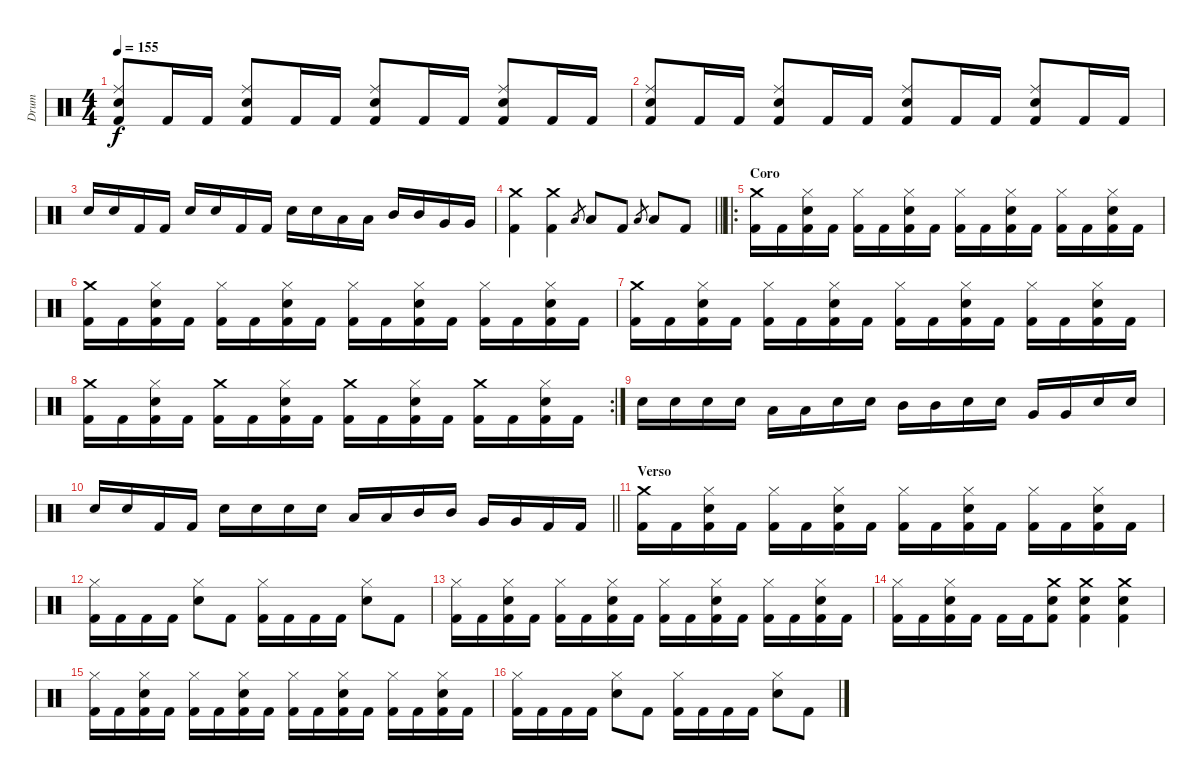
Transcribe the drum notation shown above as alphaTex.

\track ("Drum" "Drum") {instrument percussion}
\staff {score}
\articulation defaults
\ts (4 4)
\tempo 155
\clef neutral
\ks c
("Kick (hit) 2" "Ride (middle)" "Electric Snare (hit)").8{dy f} "Kick (hit) 2".16 "Kick (hit) 2".16 ("Kick (hit) 2" "Ride (middle)" "Electric Snare (hit)").8 "Kick (hit) 2".16 "Kick (hit) 2".16 ("Kick (hit) 2" "Ride (middle)" "Electric Snare (hit)").8 "Kick (hit) 2".16 "Kick (hit) 2".16 ("Kick (hit) 2" "Ride (middle)" "Electric Snare (hit)").8 "Kick (hit) 2".16 "Kick (hit) 2".16 |
("Kick (hit) 2" "Ride (middle)" "Electric Snare (hit)").8 "Kick (hit) 2".16 "Kick (hit) 2".16 ("Kick (hit) 2" "Ride (middle)" "Electric Snare (hit)").8 "Kick (hit) 2".16 "Kick (hit) 2".16 ("Kick (hit) 2" "Ride (middle)" "Electric Snare (hit)").8 "Kick (hit) 2".16 "Kick (hit) 2".16 ("Kick (hit) 2" "Ride (middle)" "Electric Snare (hit)").8 "Kick (hit) 2".16 "Kick (hit) 2".16 |
"Electric Snare (hit)".16 "Electric Snare (hit)".16 "Kick (hit) 2".16 "Kick (hit) 2".16 "Electric Snare (hit)".16 "Electric Snare (hit)".16 "Kick (hit) 2".16 "Kick (hit) 2".16 "Electric Snare (hit)".16 "Electric Snare (hit)".16 "Low Tom (hit)".16 "Low Tom (hit)".16 "Mid Tom (hit)".16 "Mid Tom (hit)".16 "Very Low Tom (hit)".16 "Very Low Tom (hit)".16 |
\barLineRight lightlight
("Kick (hit) 2" "Crash medium (hit)").4 ("Kick (hit) 2" "Crash medium (hit)").4 "Low Tom (hit)".8{gr} "Low Tom (hit)".8 "Kick (hit) 2".8 "Low Tom (hit)".8{gr} "Low Tom (hit)".8 "Kick (hit) 2".8 |
\ro
\section ("" "Coro")
("Kick (hit) 2" "Crash medium (hit)").16 "Kick (hit) 2".16 ("Kick (hit) 2" "Hi-Hat (closed)" "Electric Snare (hit)").16 "Kick (hit) 2".16 ("Kick (hit) 2" "Hi-Hat (closed)").16 "Kick (hit) 2".16 ("Kick (hit) 2" "Hi-Hat (closed)" "Electric Snare (hit)").16 "Kick (hit) 2".16 ("Kick (hit) 2" "Hi-Hat (closed)").16 "Kick (hit) 2".16 ("Kick (hit) 2" "Hi-Hat (closed)" "Electric Snare (hit)").16 "Kick (hit) 2".16 ("Kick (hit) 2" "Hi-Hat (closed)").16 "Kick (hit) 2".16 ("Kick (hit) 2" "Hi-Hat (closed)" "Electric Snare (hit)").16 "Kick (hit) 2".16 |
("Kick (hit) 2" "Crash medium (hit)").16 "Kick (hit) 2".16 ("Kick (hit) 2" "Hi-Hat (closed)" "Electric Snare (hit)").16 "Kick (hit) 2".16 ("Kick (hit) 2" "Hi-Hat (closed)").16 "Kick (hit) 2".16 ("Kick (hit) 2" "Hi-Hat (closed)" "Electric Snare (hit)").16 "Kick (hit) 2".16 ("Kick (hit) 2" "Hi-Hat (closed)").16 "Kick (hit) 2".16 ("Kick (hit) 2" "Hi-Hat (closed)" "Electric Snare (hit)").16 "Kick (hit) 2".16 ("Kick (hit) 2" "Hi-Hat (closed)").16 "Kick (hit) 2".16 ("Kick (hit) 2" "Hi-Hat (closed)" "Electric Snare (hit)").16 "Kick (hit) 2".16 |
("Kick (hit) 2" "Crash medium (hit)").16 "Kick (hit) 2".16 ("Kick (hit) 2" "Hi-Hat (closed)" "Electric Snare (hit)").16 "Kick (hit) 2".16 ("Kick (hit) 2" "Hi-Hat (closed)").16 "Kick (hit) 2".16 ("Kick (hit) 2" "Hi-Hat (closed)" "Electric Snare (hit)").16 "Kick (hit) 2".16 ("Kick (hit) 2" "Hi-Hat (closed)").16 "Kick (hit) 2".16 ("Kick (hit) 2" "Hi-Hat (closed)" "Electric Snare (hit)").16 "Kick (hit) 2".16 ("Kick (hit) 2" "Hi-Hat (closed)").16 "Kick (hit) 2".16 ("Kick (hit) 2" "Hi-Hat (closed)" "Electric Snare (hit)").16 "Kick (hit) 2".16 |
\rc 2
("Kick (hit) 2" "Crash medium (hit)").16 "Kick (hit) 2".16 ("Kick (hit) 2" "Hi-Hat (closed)" "Electric Snare (hit)").16 "Kick (hit) 2".16 ("Kick (hit) 2" "Crash medium (hit)").16 "Kick (hit) 2".16 ("Kick (hit) 2" "Hi-Hat (closed)" "Electric Snare (hit)").16 "Kick (hit) 2".16 ("Kick (hit) 2" "Crash medium (hit)").16 "Kick (hit) 2".16 ("Kick (hit) 2" "Hi-Hat (closed)" "Electric Snare (hit)").16 "Kick (hit) 2".16 ("Kick (hit) 2" "Crash medium (hit)").16 "Kick (hit) 2".16 ("Kick (hit) 2" "Hi-Hat (closed)" "Electric Snare (hit)").16 "Kick (hit) 2".16 |
"Electric Snare (hit)".16 "Electric Snare (hit)".16 "Electric Snare (hit)".16 "Electric Snare (hit)".16 "Low Tom (hit)".16 "Low Tom (hit)".16 "Electric Snare (hit)".16 "Electric Snare (hit)".16 "Mid Tom (hit)".16 "Mid Tom (hit)".16 "Electric Snare (hit)".16 "Electric Snare (hit)".16 "Very Low Tom (hit)".16 "Very Low Tom (hit)".16 "Electric Snare (hit)".16 "Electric Snare (hit)".16 |
\barLineRight lightlight "Electric Snare (hit)".16 "Electric Snare (hit)".16 "Kick (hit) 2".16 "Kick (hit) 2".16 "Electric Snare (hit)".16 "Electric Snare (hit)".16 "Electric Snare (hit)".16 "Electric Snare (hit)".16 "Low Tom (hit)".16 "Low Tom (hit)".16 "Mid Tom (hit)".16 "Mid Tom (hit)".16 "Very Low Tom (hit)".16 "Very Low Tom (hit)".16 "Kick (hit) 2".16 "Kick (hit) 2".16
|
\section ("" "Verso")
("Kick (hit) 2" "Crash medium (hit)").16 "Kick (hit) 2".16 ("Kick (hit) 2" "Hi-Hat (closed)" "Electric Snare (hit)").16 "Kick (hit) 2".16 ("Kick (hit) 2" "Hi-Hat (closed)").16 "Kick (hit) 2".16 ("Kick (hit) 2" "Hi-Hat (closed)" "Electric Snare (hit)").16 "Kick (hit) 2".16 ("Kick (hit) 2" "Hi-Hat (closed)").16 "Kick (hit) 2".16 ("Kick (hit) 2" "Hi-Hat (closed)" "Electric Snare (hit)").16 "Kick (hit) 2".16 ("Kick (hit) 2" "Hi-Hat (closed)").16 "Kick (hit) 2".16 ("Kick (hit) 2" "Hi-Hat (closed)" "Electric Snare (hit)").16 "Kick (hit) 2".16 |
("Kick (hit) 2" "Hi-Hat (closed)").16 "Kick (hit) 2".16 "Kick (hit) 2".16 "Kick (hit) 2".16 ("Hi-Hat (closed)" "Electric Snare (hit)").8 "Kick (hit) 2".8 ("Kick (hit) 2" "Hi-Hat (closed)").16 "Kick (hit) 2".16 "Kick (hit) 2".16 "Kick (hit) 2".16 ("Hi-Hat (closed)" "Electric Snare (hit)").8 "Kick (hit) 2".8 |
("Kick (hit) 2" "Hi-Hat (closed)").16 "Kick (hit) 2".16 ("Kick (hit) 2" "Hi-Hat (closed)" "Electric Snare (hit)").16 "Kick (hit) 2".16 ("Kick (hit) 2" "Hi-Hat (closed)").16 "Kick (hit) 2".16 ("Kick (hit) 2" "Hi-Hat (closed)" "Electric Snare (hit)").16 "Kick (hit) 2".16 ("Kick (hit) 2" "Hi-Hat (closed)").16 "Kick (hit) 2".16 ("Kick (hit) 2" "Hi-Hat (closed)" "Electric Snare (hit)").16 "Kick (hit) 2".16 ("Kick (hit) 2" "Hi-Hat (closed)").16 "Kick (hit) 2".16 ("Kick (hit) 2" "Hi-Hat (closed)" "Electric Snare (hit)").16 "Kick (hit) 2".16 |
("Kick (hit) 2" "Hi-Hat (closed)").16 "Kick (hit) 2".16 ("Kick (hit) 2" "Hi-Hat (closed)" "Electric Snare (hit)").16 "Kick (hit) 2".16 "Kick (hit) 2".16 "Kick (hit) 2".16 ("Kick (hit) 2" "Crash medium (hit)" "Electric Snare (hit)").8 ("Kick (hit) 2" "Crash medium (hit)" "Electric Snare (hit)").4 ("Kick (hit) 2" "Crash medium (hit)" "Electric Snare (hit)").4 |
("Kick (hit) 2" "Hi-Hat (closed)").16 "Kick (hit) 2".16 ("Kick (hit) 2" "Hi-Hat (closed)" "Electric Snare (hit)").16 "Kick (hit) 2".16 ("Kick (hit) 2" "Hi-Hat (closed)").16 "Kick (hit) 2".16 ("Kick (hit) 2" "Hi-Hat (closed)" "Electric Snare (hit)").16 "Kick (hit) 2".16 ("Kick (hit) 2" "Hi-Hat (closed)").16 "Kick (hit) 2".16 ("Kick (hit) 2" "Hi-Hat (closed)" "Electric Snare (hit)").16 "Kick (hit) 2".16 ("Kick (hit) 2" "Hi-Hat (closed)").16 "Kick (hit) 2".16 ("Kick (hit) 2" "Hi-Hat (closed)" "Electric Snare (hit)").16 "Kick (hit) 2".16 |
("Kick (hit) 2" "Hi-Hat (closed)").16 "Kick (hit) 2".16 "Kick (hit) 2".16 "Kick (hit) 2".16 ("Hi-Hat (closed)" "Electric Snare (hit)").8 "Kick (hit) 2".8 ("Kick (hit) 2" "Hi-Hat (closed)").16 "Kick (hit) 2".16 "Kick (hit) 2".16 "Kick (hit) 2".16 ("Hi-Hat (closed)" "Electric Snare (hit)").8 "Kick (hit) 2".8
